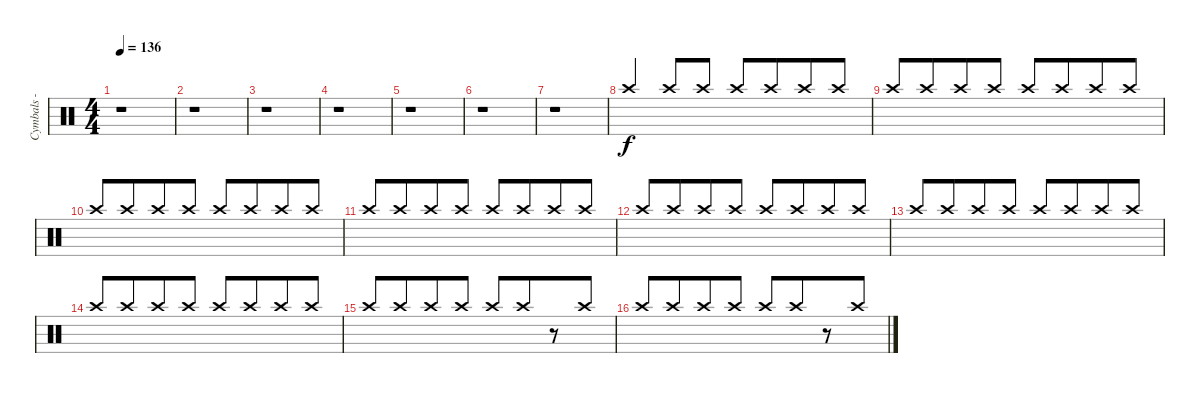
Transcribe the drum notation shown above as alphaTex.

\track ("Cymbals - crash - left" "Cymbals - ") {instrument percussion}
\staff {score}
\articulation defaults
\ts (4 4)
\tempo 136
\clef neutral
\ks c
r.1{dy ff} |
r.1 |
r.1 |
r.1 |
r.1 |
r.1 |
r.1 |
"Crash high (hit)".4{dy f volume 6 beam Up beam merge} "Crash high (hit)".8{beam Up} "Crash high (hit)".8{beam Up} "Crash high (hit)".8{beam Up} "Crash high (hit)".8{beam Up beam merge} "Crash high (hit)".8{beam Up} "Crash high (hit)".8{beam Up} |
"Crash high (hit)".8{beam Up} "Crash high (hit)".8{beam Up beam merge} "Crash high (hit)".8{beam Up} "Crash high (hit)".8{beam Up} "Crash high (hit)".8{beam Up} "Crash high (hit)".8{beam Up beam merge} "Crash high (hit)".8{beam Up} "Crash high (hit)".8{beam Up} |
"Crash high (hit)".8{beam Up} "Crash high (hit)".8{beam Up beam merge} "Crash high (hit)".8{beam Up} "Crash high (hit)".8{beam Up} "Crash high (hit)".8{beam Up} "Crash high (hit)".8{beam Up beam merge} "Crash high (hit)".8{beam Up} "Crash high (hit)".8{beam Up} |
"Crash high (hit)".8{beam Up} "Crash high (hit)".8{beam Up beam merge} "Crash high (hit)".8{beam Up} "Crash high (hit)".8{beam Up} "Crash high (hit)".8{beam Up} "Crash high (hit)".8{beam Up beam merge} "Crash high (hit)".8{beam Up} "Crash high (hit)".8{beam Up} |
"Crash high (hit)".8{beam Up} "Crash high (hit)".8{beam Up beam merge} "Crash high (hit)".8{beam Up} "Crash high (hit)".8{beam Up} "Crash high (hit)".8{beam Up} "Crash high (hit)".8{beam Up beam merge} "Crash high (hit)".8{beam Up} "Crash high (hit)".8{beam Up} |
"Crash high (hit)".8{beam Up} "Crash high (hit)".8{beam Up beam merge} "Crash high (hit)".8{beam Up} "Crash high (hit)".8{beam Up} "Crash high (hit)".8{beam Up} "Crash high (hit)".8{beam Up beam merge} "Crash high (hit)".8{beam Up} "Crash high (hit)".8{beam Up} |
"Crash high (hit)".8{beam Up} "Crash high (hit)".8{beam Up beam merge} "Crash high (hit)".8{beam Up} "Crash high (hit)".8{beam Up} "Crash high (hit)".8{beam Up} "Crash high (hit)".8{beam Up beam merge} "Crash high (hit)".8{beam Up} "Crash high (hit)".8{beam Up} |
"Crash high (hit)".8{beam Up} "Crash high (hit)".8{beam Up beam merge} "Crash high (hit)".8{beam Up} "Crash high (hit)".8{beam Up} "Crash high (hit)".8{beam Up} "Crash high (hit)".8{beam Up beam merge} r.8 "Crash high (hit)".8{beam Up} |
"Crash high (hit)".8{beam Up} "Crash high (hit)".8{beam Up beam merge} "Crash high (hit)".8{beam Up} "Crash high (hit)".8{beam Up} "Crash high (hit)".8{beam Up} "Crash high (hit)".8{beam Up beam merge} r.8 "Crash high (hit)".8{beam Up}
